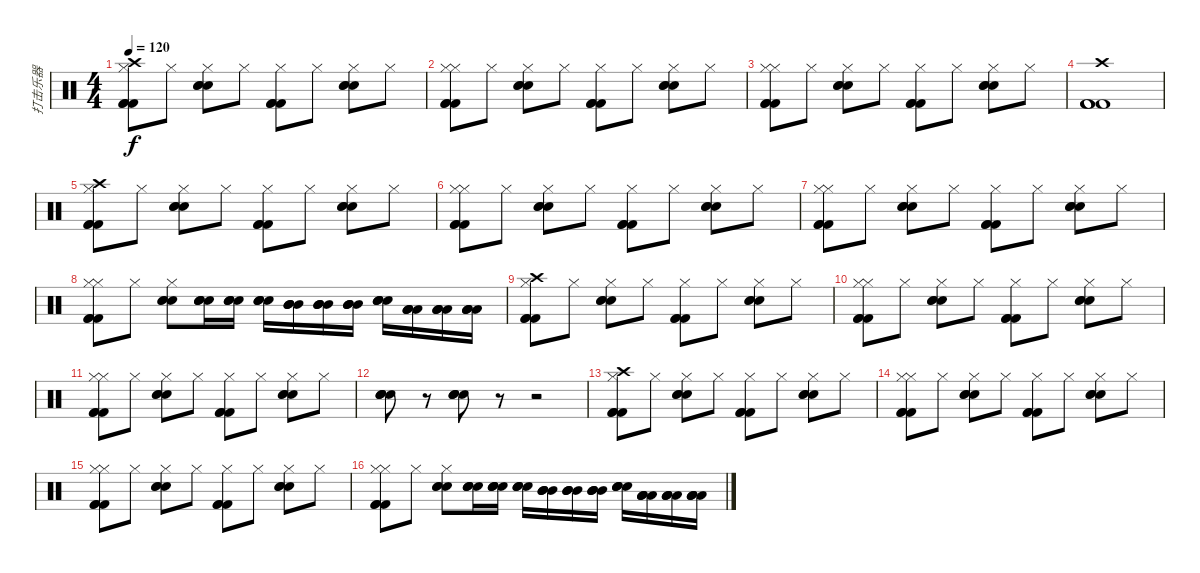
\track ("打击乐器" "打击乐器") {instrument percussion}
\staff {score}
\articulation defaults
\ts (4 4)
\tempo 120
\clef neutral
\ks c
("Kick (hit) 2" "Kick (hit) 2" "Kick (hit) 2" "Hi-Hat (closed)" "Crash high (hit)").8{dy f} "Hi-Hat (closed)".8 ("Snare (hit) 2" "Snare (hit) 2" "Snare (hit) 2" "Hi-Hat (closed)").8 "Hi-Hat (closed)".8 ("Kick (hit) 2" "Kick (hit) 2" "Kick (hit) 2" "Hi-Hat (closed)").8 "Hi-Hat (closed)".8 ("Snare (hit) 2" "Snare (hit) 2" "Snare (hit) 2" "Hi-Hat (closed)").8 "Hi-Hat (closed)".8 |
("Kick (hit) 2" "Kick (hit) 2" "Kick (hit) 2" "Hi-Hat (closed)" "Hi-Hat (closed)").8 "Hi-Hat (closed)".8 ("Snare (hit) 2" "Snare (hit) 2" "Snare (hit) 2" "Hi-Hat (closed)").8 "Hi-Hat (closed)".8 ("Kick (hit) 2" "Kick (hit) 2" "Kick (hit) 2" "Hi-Hat (closed)").8 "Hi-Hat (closed)".8 ("Snare (hit) 2" "Snare (hit) 2" "Snare (hit) 2" "Hi-Hat (closed)").8 "Hi-Hat (closed)".8 |
("Kick (hit) 2" "Kick (hit) 2" "Kick (hit) 2" "Hi-Hat (closed)" "Hi-Hat (closed)").8 "Hi-Hat (closed)".8 ("Snare (hit) 2" "Snare (hit) 2" "Snare (hit) 2" "Hi-Hat (closed)").8 "Hi-Hat (closed)".8 ("Kick (hit) 2" "Kick (hit) 2" "Kick (hit) 2" "Hi-Hat (closed)").8 "Hi-Hat (closed)".8 ("Snare (hit) 2" "Snare (hit) 2" "Snare (hit) 2" "Hi-Hat (closed)").8 "Hi-Hat (closed)".8 |
("Crash high (hit)" "Kick (hit) 2" "Kick (hit) 2" "Kick (hit) 2").1 |
("Kick (hit) 2" "Kick (hit) 2" "Kick (hit) 2" "Hi-Hat (closed)" "Crash high (hit)").8 "Hi-Hat (closed)".8 ("Snare (hit) 2" "Snare (hit) 2" "Snare (hit) 2" "Hi-Hat (closed)").8 "Hi-Hat (closed)".8 ("Kick (hit) 2" "Kick (hit) 2" "Kick (hit) 2" "Hi-Hat (closed)").8 "Hi-Hat (closed)".8 ("Snare (hit) 2" "Snare (hit) 2" "Snare (hit) 2" "Hi-Hat (closed)").8 "Hi-Hat (closed)".8 |
("Kick (hit) 2" "Kick (hit) 2" "Kick (hit) 2" "Hi-Hat (closed)" "Hi-Hat (closed)").8 "Hi-Hat (closed)".8 ("Snare (hit) 2" "Snare (hit) 2" "Snare (hit) 2" "Hi-Hat (closed)").8 "Hi-Hat (closed)".8 ("Kick (hit) 2" "Kick (hit) 2" "Kick (hit) 2" "Hi-Hat (closed)").8 "Hi-Hat (closed)".8 ("Snare (hit) 2" "Snare (hit) 2" "Snare (hit) 2" "Hi-Hat (closed)").8 "Hi-Hat (closed)".8 |
("Kick (hit) 2" "Kick (hit) 2" "Kick (hit) 2" "Hi-Hat (closed)" "Hi-Hat (closed)").8 "Hi-Hat (closed)".8 ("Snare (hit) 2" "Snare (hit) 2" "Snare (hit) 2" "Hi-Hat (closed)").8 "Hi-Hat (closed)".8 ("Kick (hit) 2" "Kick (hit) 2" "Kick (hit) 2" "Hi-Hat (closed)").8 "Hi-Hat (closed)".8 ("Snare (hit) 2" "Snare (hit) 2" "Snare (hit) 2" "Hi-Hat (closed)").8 "Hi-Hat (closed)".8 |
("Kick (hit) 2" "Kick (hit) 2" "Kick (hit) 2" "Hi-Hat (closed)" "Hi-Hat (closed)").8 "Hi-Hat (closed)".8 ("Snare (hit) 2" "Snare (hit) 2" "Snare (hit) 2" "Hi-Hat (closed)").8 ("Snare (hit) 2" "Snare (hit) 2" "Snare (hit) 2" "Snare (hit) 2").16 ("Snare (hit) 2" "Snare (hit) 2" "Snare (hit) 2" "Snare (hit) 2").16 ("Snare (hit) 2" "Snare (hit) 2" "Snare (hit) 2" "Snare (hit) 2").16 ("Mid Tom (hit)" "Mid Tom (hit)" "Mid Tom (hit)" "Mid Tom (hit)").16 ("Mid Tom (hit)" "Mid Tom (hit)" "Mid Tom (hit)" "Mid Tom (hit)").16 ("Mid Tom (hit)" "Mid Tom (hit)" "Mid Tom (hit)" "Mid Tom (hit)").16 ("Snare (hit) 2" "Snare (hit) 2" "Snare (hit) 2" "Snare (hit) 2").16 ("Low Tom (hit)" "Low Tom (hit)" "Low Tom (hit)" "Low Tom (hit)").16 ("Low Tom (hit)" "Low Tom (hit)" "Low Tom (hit)" "Low Tom (hit)").16 ("Low Tom (hit)" "Low Tom (hit)" "Low Tom (hit)" "Low Tom (hit)").16 |
("Kick (hit) 2" "Kick (hit) 2" "Kick (hit) 2" "Hi-Hat (closed)" "Crash high (hit)").8 "Hi-Hat (closed)".8 ("Snare (hit) 2" "Snare (hit) 2" "Snare (hit) 2" "Hi-Hat (closed)").8 "Hi-Hat (closed)".8 ("Kick (hit) 2" "Kick (hit) 2" "Kick (hit) 2" "Hi-Hat (closed)").8 "Hi-Hat (closed)".8 ("Snare (hit) 2" "Snare (hit) 2" "Snare (hit) 2" "Hi-Hat (closed)").8 "Hi-Hat (closed)".8 |
("Kick (hit) 2" "Kick (hit) 2" "Kick (hit) 2" "Hi-Hat (closed)" "Hi-Hat (closed)").8 "Hi-Hat (closed)".8 ("Snare (hit) 2" "Snare (hit) 2" "Snare (hit) 2" "Hi-Hat (closed)").8 "Hi-Hat (closed)".8 ("Kick (hit) 2" "Kick (hit) 2" "Kick (hit) 2" "Hi-Hat (closed)").8 "Hi-Hat (closed)".8 ("Snare (hit) 2" "Snare (hit) 2" "Snare (hit) 2" "Hi-Hat (closed)").8 "Hi-Hat (closed)".8 |
("Kick (hit) 2" "Kick (hit) 2" "Kick (hit) 2" "Hi-Hat (closed)" "Hi-Hat (closed)").8 "Hi-Hat (closed)".8 ("Snare (hit) 2" "Snare (hit) 2" "Snare (hit) 2" "Hi-Hat (closed)").8 "Hi-Hat (closed)".8 ("Kick (hit) 2" "Kick (hit) 2" "Kick (hit) 2" "Hi-Hat (closed)").8 "Hi-Hat (closed)".8 ("Snare (hit) 2" "Snare (hit) 2" "Snare (hit) 2" "Hi-Hat (closed)").8 "Hi-Hat (closed)".8 |
("Snare (hit) 2" "Snare (hit) 2" "Snare (hit) 2" "Snare (hit) 2").8 r.8 ("Snare (hit) 2" "Snare (hit) 2" "Snare (hit) 2" "Snare (hit) 2").8 r.8 r.2 |
("Kick (hit) 2" "Kick (hit) 2" "Kick (hit) 2" "Hi-Hat (closed)" "Crash high (hit)").8 "Hi-Hat (closed)".8 ("Snare (hit) 2" "Snare (hit) 2" "Snare (hit) 2" "Hi-Hat (closed)").8 "Hi-Hat (closed)".8 ("Kick (hit) 2" "Kick (hit) 2" "Kick (hit) 2" "Hi-Hat (closed)").8 "Hi-Hat (closed)".8 ("Snare (hit) 2" "Snare (hit) 2" "Snare (hit) 2" "Hi-Hat (closed)").8 "Hi-Hat (closed)".8 |
("Kick (hit) 2" "Kick (hit) 2" "Kick (hit) 2" "Hi-Hat (closed)" "Hi-Hat (closed)").8 "Hi-Hat (closed)".8 ("Snare (hit) 2" "Snare (hit) 2" "Snare (hit) 2" "Hi-Hat (closed)").8 "Hi-Hat (closed)".8 ("Kick (hit) 2" "Kick (hit) 2" "Kick (hit) 2" "Hi-Hat (closed)").8 "Hi-Hat (closed)".8 ("Snare (hit) 2" "Snare (hit) 2" "Snare (hit) 2" "Hi-Hat (closed)").8 "Hi-Hat (closed)".8 |
("Kick (hit) 2" "Kick (hit) 2" "Kick (hit) 2" "Hi-Hat (closed)" "Hi-Hat (closed)").8 "Hi-Hat (closed)".8 ("Snare (hit) 2" "Snare (hit) 2" "Snare (hit) 2" "Hi-Hat (closed)").8 "Hi-Hat (closed)".8 ("Kick (hit) 2" "Kick (hit) 2" "Kick (hit) 2" "Hi-Hat (closed)").8 "Hi-Hat (closed)".8 ("Snare (hit) 2" "Snare (hit) 2" "Snare (hit) 2" "Hi-Hat (closed)").8 "Hi-Hat (closed)".8 |
("Kick (hit) 2" "Kick (hit) 2" "Kick (hit) 2" "Hi-Hat (closed)" "Hi-Hat (closed)").8 "Hi-Hat (closed)".8 ("Snare (hit) 2" "Snare (hit) 2" "Snare (hit) 2" "Hi-Hat (closed)").8 ("Snare (hit) 2" "Snare (hit) 2" "Snare (hit) 2" "Snare (hit) 2").16 ("Snare (hit) 2" "Snare (hit) 2" "Snare (hit) 2" "Snare (hit) 2").16 ("Snare (hit) 2" "Snare (hit) 2" "Snare (hit) 2" "Snare (hit) 2").16 ("Mid Tom (hit)" "Mid Tom (hit)" "Mid Tom (hit)" "Mid Tom (hit)").16 ("Mid Tom (hit)" "Mid Tom (hit)" "Mid Tom (hit)" "Mid Tom (hit)").16 ("Mid Tom (hit)" "Mid Tom (hit)" "Mid Tom (hit)" "Mid Tom (hit)").16 ("Snare (hit) 2" "Snare (hit) 2" "Snare (hit) 2" "Snare (hit) 2").16 ("Low Tom (hit)" "Low Tom (hit)" "Low Tom (hit)" "Low Tom (hit)").16 ("Low Tom (hit)" "Low Tom (hit)" "Low Tom (hit)" "Low Tom (hit)").16 ("Low Tom (hit)" "Low Tom (hit)" "Low Tom (hit)" "Low Tom (hit)").16
